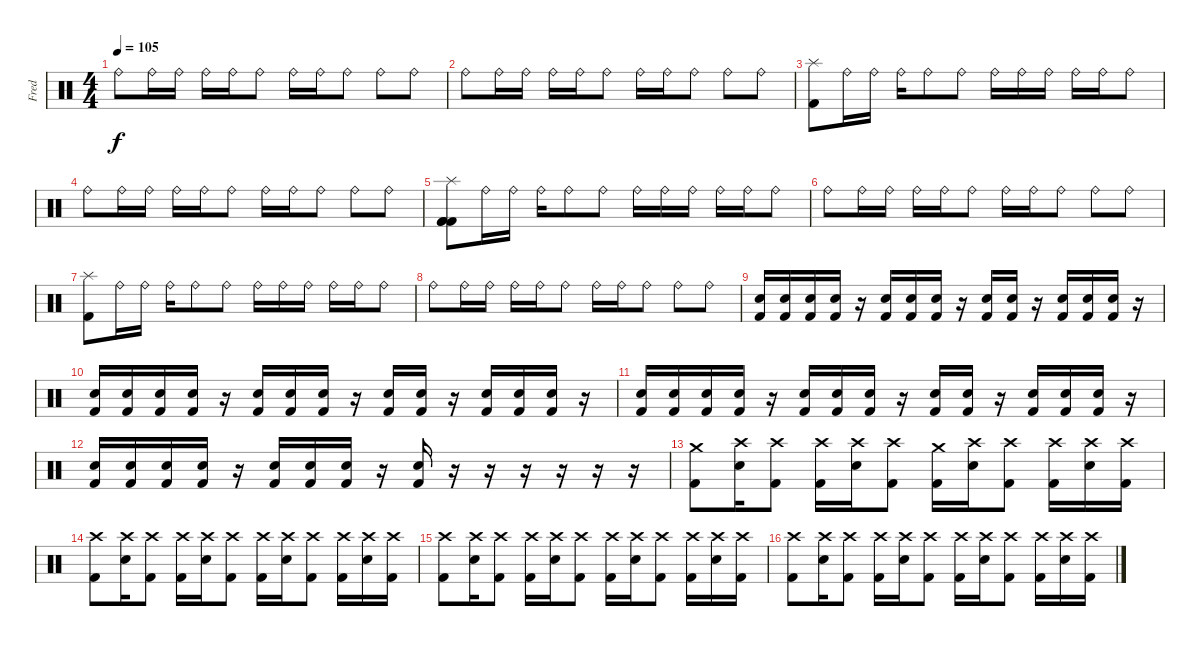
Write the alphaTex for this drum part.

\track ("Fred" "Fred") {instrument percussion}
\staff {score}
\articulation defaults
\ts (4 4)
\tempo 105
\clef neutral
\ks c "Ride (bell)".8{dy f} "Ride (bell)".16 "Ride (bell)".16 "Ride (bell)".16 "Ride (bell)".16 "Ride (bell)".8 "Ride (bell)".16 "Ride (bell)".16 "Ride (bell)".8 "Ride (bell)".8 "Ride (bell)".8
|
"Ride (bell)".8 "Ride (bell)".16 "Ride (bell)".16 "Ride (bell)".16 "Ride (bell)".16 "Ride (bell)".8 "Ride (bell)".16 "Ride (bell)".16 "Ride (bell)".8 "Ride (bell)".8 "Ride (bell)".8 |
("Splash (hit)" "Kick (hit) 2").8 "Ride (bell)".16 "Ride (bell)".16 "Ride (bell)".16 "Ride (bell)".8 "Ride (bell)".8 "Ride (bell)".16 "Ride (bell)".16 "Ride (bell)".16 "Ride (bell)".16 "Ride (bell)".16 "Ride (bell)".8 |
"Ride (bell)".8 "Ride (bell)".16 "Ride (bell)".16 "Ride (bell)".16 "Ride (bell)".16 "Ride (bell)".8 "Ride (bell)".16 "Ride (bell)".16 "Ride (bell)".8 "Ride (bell)".8 "Ride (bell)".8 |
("Splash (hit)" "Kick (hit) 2" "Kick (hit) 2" "Kick (hit) 2").8 "Ride (bell)".16 "Ride (bell)".16 "Ride (bell)".16 "Ride (bell)".8 "Ride (bell)".8 "Ride (bell)".16 "Ride (bell)".16 "Ride (bell)".16 "Ride (bell)".16 "Ride (bell)".16 "Ride (bell)".8 |
"Ride (bell)".8 "Ride (bell)".16 "Ride (bell)".16 "Ride (bell)".16 "Ride (bell)".16 "Ride (bell)".8 "Ride (bell)".16 "Ride (bell)".16 "Ride (bell)".8 "Ride (bell)".8 "Ride (bell)".8 |
("Splash (hit)" "Kick (hit) 2").8 "Ride (bell)".16 "Ride (bell)".16 "Ride (bell)".16 "Ride (bell)".8 "Ride (bell)".8 "Ride (bell)".16 "Ride (bell)".16 "Ride (bell)".16 "Ride (bell)".16 "Ride (bell)".16 "Ride (bell)".8 |
"Ride (bell)".8 "Ride (bell)".16 "Ride (bell)".16 "Ride (bell)".16 "Ride (bell)".16 "Ride (bell)".8 "Ride (bell)".16 "Ride (bell)".16 "Ride (bell)".8 "Ride (bell)".8 "Ride (bell)".8 |
("Electric Snare (hit)" "Kick (hit) 2").16 ("Electric Snare (hit)" "Kick (hit) 2").16 ("Electric Snare (hit)" "Kick (hit) 2").16 ("Electric Snare (hit)" "Kick (hit) 2").16 r.16 ("Electric Snare (hit)" "Kick (hit) 2").16 ("Electric Snare (hit)" "Kick (hit) 2").16 ("Electric Snare (hit)" "Kick (hit) 2").16 r.16 ("Electric Snare (hit)" "Kick (hit) 2").16 ("Electric Snare (hit)" "Kick (hit) 2").16 r.16 ("Electric Snare (hit)" "Kick (hit) 2").16 ("Electric Snare (hit)" "Kick (hit) 2").16 ("Electric Snare (hit)" "Kick (hit) 2").16 r.16 |
("Electric Snare (hit)" "Kick (hit) 2").16 ("Electric Snare (hit)" "Kick (hit) 2").16 ("Electric Snare (hit)" "Kick (hit) 2").16 ("Electric Snare (hit)" "Kick (hit) 2").16 r.16 ("Electric Snare (hit)" "Kick (hit) 2").16 ("Electric Snare (hit)" "Kick (hit) 2").16 ("Electric Snare (hit)" "Kick (hit) 2").16 r.16 ("Electric Snare (hit)" "Kick (hit) 2").16 ("Electric Snare (hit)" "Kick (hit) 2").16 r.16 ("Electric Snare (hit)" "Kick (hit) 2").16 ("Electric Snare (hit)" "Kick (hit) 2").16 ("Electric Snare (hit)" "Kick (hit) 2").16 r.16 |
("Electric Snare (hit)" "Kick (hit) 2").16 ("Electric Snare (hit)" "Kick (hit) 2").16 ("Electric Snare (hit)" "Kick (hit) 2").16 ("Electric Snare (hit)" "Kick (hit) 2").16 r.16 ("Electric Snare (hit)" "Kick (hit) 2").16 ("Electric Snare (hit)" "Kick (hit) 2").16 ("Electric Snare (hit)" "Kick (hit) 2").16 r.16 ("Electric Snare (hit)" "Kick (hit) 2").16 ("Electric Snare (hit)" "Kick (hit) 2").16 r.16 ("Electric Snare (hit)" "Kick (hit) 2").16 ("Electric Snare (hit)" "Kick (hit) 2").16 ("Electric Snare (hit)" "Kick (hit) 2").16 r.16 |
("Electric Snare (hit)" "Kick (hit) 2").16 ("Electric Snare (hit)" "Kick (hit) 2").16 ("Electric Snare (hit)" "Kick (hit) 2").16 ("Electric Snare (hit)" "Kick (hit) 2").16 r.16 ("Electric Snare (hit)" "Kick (hit) 2").16 ("Electric Snare (hit)" "Kick (hit) 2").16 ("Electric Snare (hit)" "Kick (hit) 2").16 r.16 ("Electric Snare (hit)" "Kick (hit) 2").16 r.16 r.16 r.16 r.16 r.16 r.16 |
("Crash medium (hit)" "Kick (hit) 2").8 ("Crash high (hit)" "Electric Snare (hit)").16 ("Crash high (hit)" "Kick (hit) 2").8 ("Crash high (hit)" "Kick (hit) 2").16 ("Crash high (hit)" "Electric Snare (hit)").16 ("Crash high (hit)" "Kick (hit) 2").8 ("Crash medium (hit)" "Kick (hit) 2").16 ("Crash high (hit)" "Electric Snare (hit)").16 ("Crash high (hit)" "Kick (hit) 2").8 ("Crash high (hit)" "Kick (hit) 2").16 ("Crash high (hit)" "Electric Snare (hit)").16 ("Crash high (hit)" "Kick (hit) 2").16 |
("Crash high (hit)" "Kick (hit) 2").8 ("Crash high (hit)" "Electric Snare (hit)").16 ("Crash high (hit)" "Kick (hit) 2").8 ("Crash high (hit)" "Kick (hit) 2").16 ("Crash high (hit)" "Electric Snare (hit)").16 ("Crash high (hit)" "Kick (hit) 2").8 ("Crash high (hit)" "Kick (hit) 2").16 ("Crash high (hit)" "Electric Snare (hit)").16 ("Crash high (hit)" "Kick (hit) 2").8 ("Crash high (hit)" "Kick (hit) 2").16 ("Crash high (hit)" "Electric Snare (hit)").16 ("Crash high (hit)" "Kick (hit) 2").16 |
("Crash high (hit)" "Kick (hit) 2").8 ("Crash high (hit)" "Electric Snare (hit)").16 ("Crash high (hit)" "Kick (hit) 2").8 ("Crash high (hit)" "Kick (hit) 2").16 ("Crash high (hit)" "Electric Snare (hit)").16 ("Crash high (hit)" "Kick (hit) 2").8 ("Crash high (hit)" "Kick (hit) 2").16 ("Crash high (hit)" "Electric Snare (hit)").16 ("Crash high (hit)" "Kick (hit) 2").8 ("Crash high (hit)" "Kick (hit) 2").16 ("Crash high (hit)" "Electric Snare (hit)").16 ("Crash high (hit)" "Kick (hit) 2").16 |
("Crash high (hit)" "Kick (hit) 2").8 ("Crash high (hit)" "Electric Snare (hit)").16 ("Crash high (hit)" "Kick (hit) 2").8 ("Crash high (hit)" "Kick (hit) 2").16 ("Crash high (hit)" "Electric Snare (hit)").16 ("Crash high (hit)" "Kick (hit) 2").8 ("Crash high (hit)" "Kick (hit) 2").16 ("Crash high (hit)" "Electric Snare (hit)").16 ("Crash high (hit)" "Kick (hit) 2").8 ("Crash high (hit)" "Kick (hit) 2").16 ("Crash high (hit)" "Electric Snare (hit)").16 ("Crash high (hit)" "Kick (hit) 2").16
